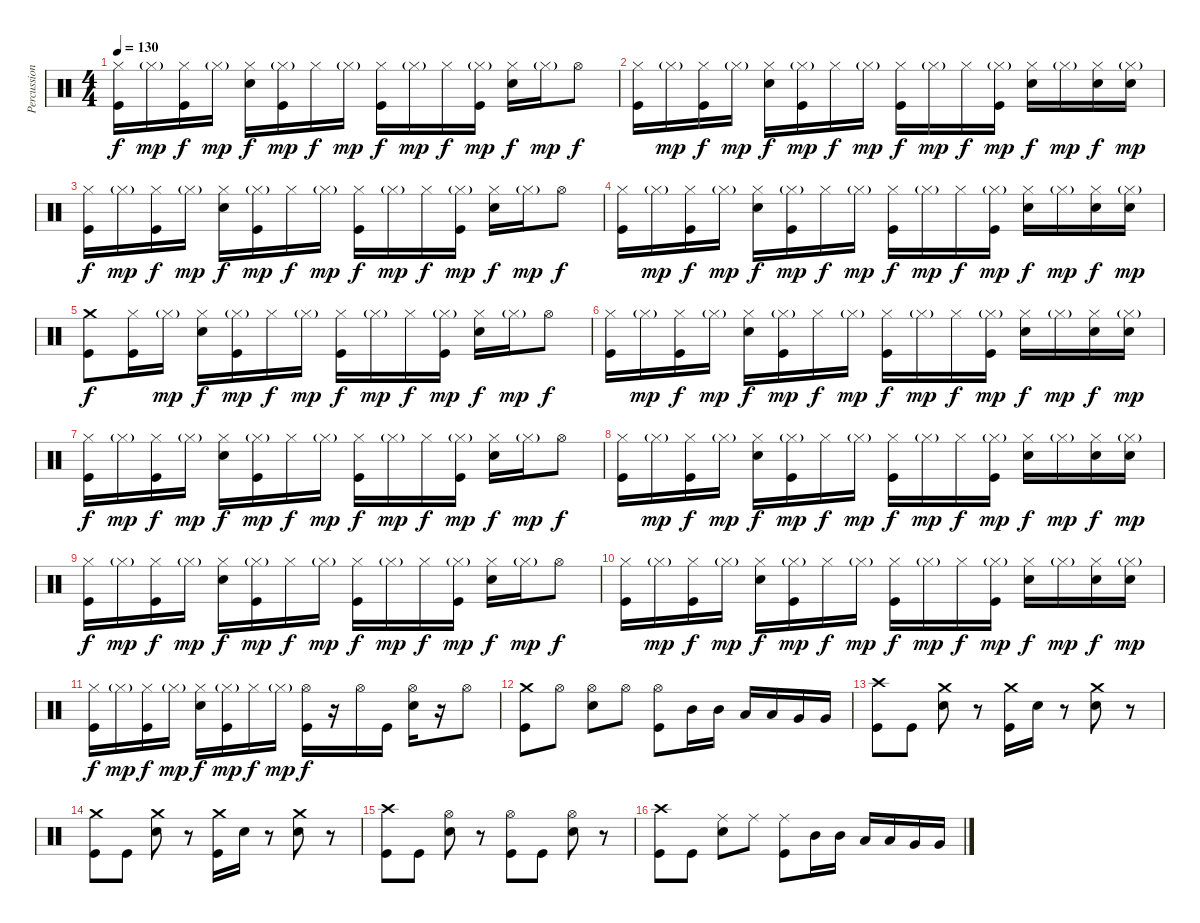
\track ("Percussion" "Percussion") {instrument percussion}
\staff {score}
\articulation defaults
\ts (4 4)
\tempo 130
\clef neutral
\ks c
("Hi-Hat (closed)" "Kick (hit)").16{dy f} "Hi-Hat (closed)"{g}.16{dy mp} ("Hi-Hat (closed)" "Kick (hit)").16{dy f} "Hi-Hat (closed)"{g}.16{dy mp} ("Hi-Hat (closed)" "Electric Snare (hit)").16{dy f} ("Hi-Hat (closed)"{g} "Kick (hit)").16{dy mp} "Hi-Hat (closed)".16{dy f} "Hi-Hat (closed)"{g}.16{dy mp} ("Hi-Hat (closed)" "Kick (hit)").16{dy f} "Hi-Hat (closed)"{g}.16{dy mp} "Hi-Hat (closed)".16{dy f} ("Hi-Hat (closed)"{g} "Kick (hit)").16{dy mp} ("Hi-Hat (closed)" "Electric Snare (hit)").16{dy f} "Hi-Hat (closed)"{g}.16{dy mp} "Hi-Hat (open)".8{dy f} |
("Hi-Hat (closed)" "Kick (hit)").16 "Hi-Hat (closed)"{g}.16{dy mp} ("Hi-Hat (closed)" "Kick (hit)").16{dy f} "Hi-Hat (closed)"{g}.16{dy mp} ("Hi-Hat (closed)" "Electric Snare (hit)").16{dy f} ("Hi-Hat (closed)"{g} "Kick (hit)").16{dy mp} "Hi-Hat (closed)".16{dy f} "Hi-Hat (closed)"{g}.16{dy mp} ("Hi-Hat (closed)" "Kick (hit)").16{dy f} "Hi-Hat (closed)"{g}.16{dy mp} "Hi-Hat (closed)".16{dy f} ("Hi-Hat (closed)"{g} "Kick (hit)").16{dy mp} ("Hi-Hat (closed)" "Electric Snare (hit)").16{dy f} "Hi-Hat (closed)"{g}.16{dy mp} ("Hi-Hat (closed)" "Electric Snare (hit)").16{dy f} ("Hi-Hat (closed)"{g} "Electric Snare (hit)").16{dy mp} |
("Hi-Hat (closed)" "Kick (hit)").16{dy f} "Hi-Hat (closed)"{g}.16{dy mp} ("Hi-Hat (closed)" "Kick (hit)").16{dy f} "Hi-Hat (closed)"{g}.16{dy mp} ("Hi-Hat (closed)" "Electric Snare (hit)").16{dy f} ("Hi-Hat (closed)"{g} "Kick (hit)").16{dy mp} "Hi-Hat (closed)".16{dy f} "Hi-Hat (closed)"{g}.16{dy mp} ("Hi-Hat (closed)" "Kick (hit)").16{dy f} "Hi-Hat (closed)"{g}.16{dy mp} "Hi-Hat (closed)".16{dy f} ("Hi-Hat (closed)"{g} "Kick (hit)").16{dy mp} ("Hi-Hat (closed)" "Electric Snare (hit)").16{dy f} "Hi-Hat (closed)"{g}.16{dy mp} "Hi-Hat (open)".8{dy f} |
("Hi-Hat (closed)" "Kick (hit)").16 "Hi-Hat (closed)"{g}.16{dy mp} ("Hi-Hat (closed)" "Kick (hit)").16{dy f} "Hi-Hat (closed)"{g}.16{dy mp} ("Hi-Hat (closed)" "Electric Snare (hit)").16{dy f} ("Hi-Hat (closed)"{g} "Kick (hit)").16{dy mp} "Hi-Hat (closed)".16{dy f} "Hi-Hat (closed)"{g}.16{dy mp} ("Hi-Hat (closed)" "Kick (hit)").16{dy f} "Hi-Hat (closed)"{g}.16{dy mp} "Hi-Hat (closed)".16{dy f} ("Hi-Hat (closed)"{g} "Kick (hit)").16{dy mp} ("Hi-Hat (closed)" "Electric Snare (hit)").16{dy f} "Hi-Hat (closed)"{g}.16{dy mp} ("Hi-Hat (closed)" "Electric Snare (hit)").16{dy f} ("Hi-Hat (closed)"{g} "Electric Snare (hit)").16{dy mp} |
("Crash medium (hit)" "Kick (hit)").8{dy f} ("Hi-Hat (closed)" "Kick (hit)").16 "Hi-Hat (closed)"{g}.16{dy mp} ("Hi-Hat (closed)" "Electric Snare (hit)").16{dy f} ("Hi-Hat (closed)"{g} "Kick (hit)").16{dy mp} "Hi-Hat (closed)".16{dy f} "Hi-Hat (closed)"{g}.16{dy mp} ("Hi-Hat (closed)" "Kick (hit)").16{dy f} "Hi-Hat (closed)"{g}.16{dy mp} "Hi-Hat (closed)".16{dy f} ("Hi-Hat (closed)"{g} "Kick (hit)").16{dy mp} ("Hi-Hat (closed)" "Electric Snare (hit)").16{dy f} "Hi-Hat (closed)"{g}.16{dy mp} "Hi-Hat (open)".8{dy f} |
("Hi-Hat (closed)" "Kick (hit)").16 "Hi-Hat (closed)"{g}.16{dy mp} ("Hi-Hat (closed)" "Kick (hit)").16{dy f} "Hi-Hat (closed)"{g}.16{dy mp} ("Hi-Hat (closed)" "Electric Snare (hit)").16{dy f} ("Hi-Hat (closed)"{g} "Kick (hit)").16{dy mp} "Hi-Hat (closed)".16{dy f} "Hi-Hat (closed)"{g}.16{dy mp} ("Hi-Hat (closed)" "Kick (hit)").16{dy f} "Hi-Hat (closed)"{g}.16{dy mp} "Hi-Hat (closed)".16{dy f} ("Hi-Hat (closed)"{g} "Kick (hit)").16{dy mp} ("Hi-Hat (closed)" "Electric Snare (hit)").16{dy f} "Hi-Hat (closed)"{g}.16{dy mp} ("Hi-Hat (closed)" "Electric Snare (hit)").16{dy f} ("Hi-Hat (closed)"{g} "Electric Snare (hit)").16{dy mp} |
("Hi-Hat (closed)" "Kick (hit)").16{dy f} "Hi-Hat (closed)"{g}.16{dy mp} ("Hi-Hat (closed)" "Kick (hit)").16{dy f} "Hi-Hat (closed)"{g}.16{dy mp} ("Hi-Hat (closed)" "Electric Snare (hit)").16{dy f} ("Hi-Hat (closed)"{g} "Kick (hit)").16{dy mp} "Hi-Hat (closed)".16{dy f} "Hi-Hat (closed)"{g}.16{dy mp} ("Hi-Hat (closed)" "Kick (hit)").16{dy f} "Hi-Hat (closed)"{g}.16{dy mp} "Hi-Hat (closed)".16{dy f} ("Hi-Hat (closed)"{g} "Kick (hit)").16{dy mp} ("Hi-Hat (closed)" "Electric Snare (hit)").16{dy f} "Hi-Hat (closed)"{g}.16{dy mp} "Hi-Hat (open)".8{dy f} |
("Hi-Hat (closed)" "Kick (hit)").16 "Hi-Hat (closed)"{g}.16{dy mp} ("Hi-Hat (closed)" "Kick (hit)").16{dy f} "Hi-Hat (closed)"{g}.16{dy mp} ("Hi-Hat (closed)" "Electric Snare (hit)").16{dy f} ("Hi-Hat (closed)"{g} "Kick (hit)").16{dy mp} "Hi-Hat (closed)".16{dy f} "Hi-Hat (closed)"{g}.16{dy mp} ("Hi-Hat (closed)" "Kick (hit)").16{dy f} "Hi-Hat (closed)"{g}.16{dy mp} "Hi-Hat (closed)".16{dy f} ("Hi-Hat (closed)"{g} "Kick (hit)").16{dy mp} ("Hi-Hat (closed)" "Electric Snare (hit)").16{dy f} "Hi-Hat (closed)"{g}.16{dy mp} ("Hi-Hat (closed)" "Electric Snare (hit)").16{dy f} ("Hi-Hat (closed)"{g} "Electric Snare (hit)").16{dy mp} |
("Hi-Hat (closed)" "Kick (hit)").16{dy f} "Hi-Hat (closed)"{g}.16{dy mp} ("Hi-Hat (closed)" "Kick (hit)").16{dy f} "Hi-Hat (closed)"{g}.16{dy mp} ("Hi-Hat (closed)" "Electric Snare (hit)").16{dy f} ("Hi-Hat (closed)"{g} "Kick (hit)").16{dy mp} "Hi-Hat (closed)".16{dy f} "Hi-Hat (closed)"{g}.16{dy mp} ("Hi-Hat (closed)" "Kick (hit)").16{dy f} "Hi-Hat (closed)"{g}.16{dy mp} "Hi-Hat (closed)".16{dy f} ("Hi-Hat (closed)"{g} "Kick (hit)").16{dy mp} ("Hi-Hat (closed)" "Electric Snare (hit)").16{dy f} "Hi-Hat (closed)"{g}.16{dy mp} "Hi-Hat (open)".8{dy f} |
("Hi-Hat (closed)" "Kick (hit)").16 "Hi-Hat (closed)"{g}.16{dy mp} ("Hi-Hat (closed)" "Kick (hit)").16{dy f} "Hi-Hat (closed)"{g}.16{dy mp} ("Hi-Hat (closed)" "Electric Snare (hit)").16{dy f} ("Hi-Hat (closed)"{g} "Kick (hit)").16{dy mp} "Hi-Hat (closed)".16{dy f} "Hi-Hat (closed)"{g}.16{dy mp} ("Hi-Hat (closed)" "Kick (hit)").16{dy f} "Hi-Hat (closed)"{g}.16{dy mp} "Hi-Hat (closed)".16{dy f} ("Hi-Hat (closed)"{g} "Kick (hit)").16{dy mp} ("Hi-Hat (closed)" "Electric Snare (hit)").16{dy f} "Hi-Hat (closed)"{g}.16{dy mp} ("Hi-Hat (closed)" "Electric Snare (hit)").16{dy f} ("Hi-Hat (closed)"{g} "Electric Snare (hit)").16{dy mp} |
("Hi-Hat (closed)" "Kick (hit)").16{dy f} "Hi-Hat (closed)"{g}.16{dy mp} ("Hi-Hat (closed)" "Kick (hit)").16{dy f} "Hi-Hat (closed)"{g}.16{dy mp} ("Hi-Hat (closed)" "Electric Snare (hit)").16{dy f} ("Hi-Hat (closed)"{g} "Kick (hit)").16{dy mp} "Hi-Hat (closed)".16{dy f} "Hi-Hat (closed)"{g}.16{dy mp} ("Hi-Hat (open)" "Kick (hit)").16{dy f} r.16 "Hi-Hat (open)".16 "Kick (hit)".16 ("Hi-Hat (open)" "Electric Snare (hit)").16 r.16 "Hi-Hat (open)".8 |
("Crash medium (hit)" "Kick (hit)").8 "Hi-Hat (open)".8 ("Hi-Hat (open)" "Electric Snare (hit)").8 "Hi-Hat (open)".8 ("Hi-Hat (open)" "Kick (hit)").8 "Mid Tom (hit)".16 "Mid Tom (hit)".16 "Low Tom (hit)".16 "Low Tom (hit)".16 "Very Low Tom (hit)".16 "Very Low Tom (hit)".16 |
("Crash high (hit)" "Kick (hit)").8 "Kick (hit)".8 ("Crash medium (hit)" "Electric Snare (hit)").8 r.8 ("Crash medium (hit)" "Kick (hit)").16 "Electric Snare (hit)".16 r.8 ("Crash medium (hit)" "Electric Snare (hit)").8 r.8 |
("Crash medium (hit)" "Kick (hit)").8 "Kick (hit)".8 ("Crash medium (hit)" "Electric Snare (hit)").8 r.8 ("Crash medium (hit)" "Kick (hit)").16 "Electric Snare (hit)".16 r.8 ("Crash medium (hit)" "Electric Snare (hit)").8 r.8 |
("Crash high (hit)" "Kick (hit)").8 "Kick (hit)".8 ("Hi-Hat (open)" "Electric Snare (hit)").8 r.8 ("Hi-Hat (open)" "Kick (hit)").8 "Kick (hit)".8 ("Hi-Hat (open)" "Electric Snare (hit)").8 r.8 |
("Crash high (hit)" "Kick (hit)").8 "Kick (hit)".8 ("Ride (middle)" "Electric Snare (hit)").8 "Ride (middle)".8 ("Ride (middle)" "Kick (hit)").8 "Mid Tom (hit)".16 "Mid Tom (hit)".16 "Low Tom (hit)".16 "Low Tom (hit)".16 "Very Low Tom (hit)".16 "Very Low Tom (hit)".16
